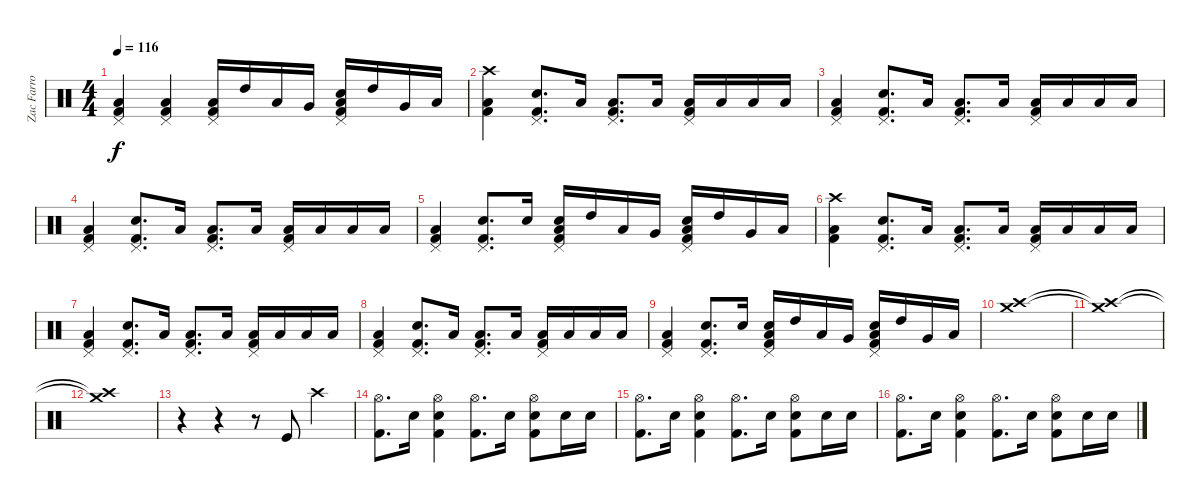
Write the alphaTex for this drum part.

\track ("Zac Farro" "Zac Farro") {instrument percussion}
\staff {score}
\articulation defaults
\ts (4 4)
\tempo 116
\clef neutral
\ks c
("Pedal Hi-Hat (hit)" "Kick (hit) 2" "Low Floor Tom (hit)").4{dy f} ("Pedal Hi-Hat (hit)" "Kick (hit) 2" "Low Floor Tom (hit)").4 ("Pedal Hi-Hat (hit)" "Kick (hit) 2" "Low Floor Tom (hit)").16 "High Tom (hit)".16 "Low Tom (hit)".16 "Very Low Tom (hit)".16 ("Pedal Hi-Hat (hit)" "Kick (hit) 2" "Electric Snare (hit)" "Low Floor Tom (hit)").16 "High Tom (hit)".16 "Very Low Tom (hit)".16 "Low Tom (hit)".16 |
("Crash high (hit)" "Kick (hit) 2" "Low Floor Tom (hit)").4 ("Pedal Hi-Hat (hit)" "Kick (hit) 2" "Electric Snare (hit)").8{d} "Low Floor Tom (hit)".16 ("Pedal Hi-Hat (hit)" "Kick (hit) 2" "Low Floor Tom (hit)").8{d} "Low Floor Tom (hit)".16 ("Pedal Hi-Hat (hit)" "Kick (hit) 2" "Low Floor Tom (hit)").16 "Low Floor Tom (hit)".16 "Low Floor Tom (hit)".16 "Low Floor Tom (hit)".16 |
("Pedal Hi-Hat (hit)" "Kick (hit) 2" "Low Floor Tom (hit)").4 ("Pedal Hi-Hat (hit)" "Kick (hit) 2" "Electric Snare (hit)").8{d} "Low Floor Tom (hit)".16 ("Pedal Hi-Hat (hit)" "Kick (hit) 2" "Low Floor Tom (hit)").8{d} "Low Floor Tom (hit)".16 ("Pedal Hi-Hat (hit)" "Kick (hit) 2" "Low Floor Tom (hit)").16 "Low Floor Tom (hit)".16 "Low Floor Tom (hit)".16 "Low Floor Tom (hit)".16 |
("Pedal Hi-Hat (hit)" "Kick (hit) 2" "Low Floor Tom (hit)").4 ("Pedal Hi-Hat (hit)" "Kick (hit) 2" "Electric Snare (hit)").8{d} "Low Floor Tom (hit)".16 ("Pedal Hi-Hat (hit)" "Kick (hit) 2" "Low Floor Tom (hit)").8{d} "Low Floor Tom (hit)".16 ("Pedal Hi-Hat (hit)" "Kick (hit) 2" "Low Floor Tom (hit)").16 "Low Floor Tom (hit)".16 "Low Floor Tom (hit)".16 "Low Floor Tom (hit)".16 |
("Pedal Hi-Hat (hit)" "Kick (hit) 2" "Low Floor Tom (hit)").4 ("Pedal Hi-Hat (hit)" "Kick (hit) 2" "Electric Snare (hit)").8{d} "Electric Snare (hit)".16 ("Pedal Hi-Hat (hit)" "Kick (hit) 2" "Electric Snare (hit)" "Low Floor Tom (hit)").16 "High Tom (hit)".16 "Low Tom (hit)".16 "Very Low Tom (hit)".16 ("Pedal Hi-Hat (hit)" "Kick (hit) 2" "Electric Snare (hit)" "Low Floor Tom (hit)").16 "High Tom (hit)".16 "Very Low Tom (hit)".16 "Low Tom (hit)".16 |
("Crash high (hit)" "Kick (hit) 2" "Low Floor Tom (hit)").4 ("Pedal Hi-Hat (hit)" "Kick (hit) 2" "Electric Snare (hit)").8{d} "Low Floor Tom (hit)".16 ("Pedal Hi-Hat (hit)" "Kick (hit) 2" "Low Floor Tom (hit)").8{d} "Low Floor Tom (hit)".16 ("Pedal Hi-Hat (hit)" "Kick (hit) 2" "Low Floor Tom (hit)").16 "Low Floor Tom (hit)".16 "Low Floor Tom (hit)".16 "Low Floor Tom (hit)".16 |
("Pedal Hi-Hat (hit)" "Kick (hit) 2" "Low Floor Tom (hit)").4 ("Pedal Hi-Hat (hit)" "Kick (hit) 2" "Electric Snare (hit)").8{d} "Low Floor Tom (hit)".16 ("Pedal Hi-Hat (hit)" "Kick (hit) 2" "Low Floor Tom (hit)").8{d} "Low Floor Tom (hit)".16 ("Pedal Hi-Hat (hit)" "Kick (hit) 2" "Low Floor Tom (hit)").16 "Low Floor Tom (hit)".16 "Low Floor Tom (hit)".16 "Low Floor Tom (hit)".16 |
("Pedal Hi-Hat (hit)" "Kick (hit) 2" "Low Floor Tom (hit)").4 ("Pedal Hi-Hat (hit)" "Kick (hit) 2" "Electric Snare (hit)").8{d} "Low Floor Tom (hit)".16 ("Pedal Hi-Hat (hit)" "Kick (hit) 2" "Low Floor Tom (hit)").8{d} "Low Floor Tom (hit)".16 ("Pedal Hi-Hat (hit)" "Kick (hit) 2" "Low Floor Tom (hit)").16 "Low Floor Tom (hit)".16 "Low Floor Tom (hit)".16 "Low Floor Tom (hit)".16 |
("Pedal Hi-Hat (hit)" "Kick (hit) 2" "Low Floor Tom (hit)").4 ("Pedal Hi-Hat (hit)" "Kick (hit) 2" "Electric Snare (hit)").8{d} "Electric Snare (hit)".16 ("Pedal Hi-Hat (hit)" "Kick (hit) 2" "Electric Snare (hit)" "Low Floor Tom (hit)").16 "High Tom (hit)".16 "Low Tom (hit)".16 "Very Low Tom (hit)".16 ("Pedal Hi-Hat (hit)" "Kick (hit) 2" "Electric Snare (hit)" "Low Floor Tom (hit)").16 "High Tom (hit)".16 "Very Low Tom (hit)".16 "Low Tom (hit)".16 |
("Crash high (hit)" "Crash medium (hit)").1 |
("Crash high (hit)"{t} "Crash medium (hit)"{t}).1 |
("Crash high (hit)"{t} "Crash medium (hit)"{t}).1 |
r.4 r.4 r.8 "Kick (hit)".8 "Crash high (hit)".4 |
("Hi-Hat (open)" "Kick (hit) 2").8{d} "Electric Snare (hit)".16 ("Hi-Hat (open)" "Kick (hit) 2" "Electric Snare (hit)").4 ("Hi-Hat (open)" "Kick (hit) 2").8{d} "Electric Snare (hit)".16 ("Hi-Hat (open)" "Kick (hit) 2" "Electric Snare (hit)").8 "Electric Snare (hit)".16 "Electric Snare (hit)".16 |
("Hi-Hat (open)" "Kick (hit) 2").8{d} "Electric Snare (hit)".16 ("Hi-Hat (open)" "Kick (hit) 2" "Electric Snare (hit)").4 ("Hi-Hat (open)" "Kick (hit) 2").8{d} "Electric Snare (hit)".16 ("Hi-Hat (open)" "Kick (hit) 2" "Electric Snare (hit)").8 "Electric Snare (hit)".16 "Electric Snare (hit)".16 |
("Hi-Hat (open)" "Kick (hit) 2").8{d} "Electric Snare (hit)".16 ("Hi-Hat (open)" "Kick (hit) 2" "Electric Snare (hit)").4 ("Hi-Hat (open)" "Kick (hit) 2").8{d} "Electric Snare (hit)".16 ("Hi-Hat (open)" "Kick (hit) 2" "Electric Snare (hit)").8 "Electric Snare (hit)".16 "Electric Snare (hit)".16
